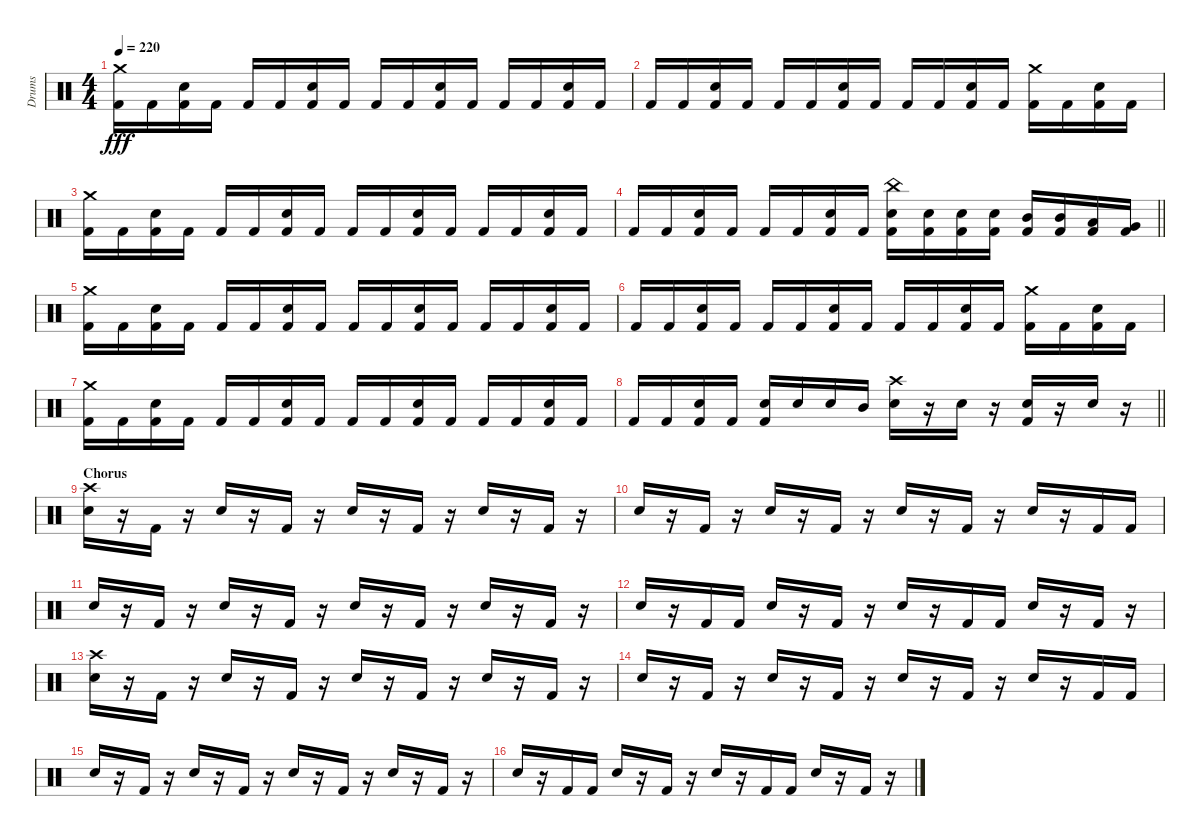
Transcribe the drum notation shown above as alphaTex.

\track ("Drums" "Drums") {instrument percussion}
\staff {score}
\articulation defaults
\ts (4 4)
\tempo 220
\clef neutral
\ks c
("Crash medium (hit)" "Kick (hit) 2").16{dy fff} "Kick (hit) 2".16 ("Kick (hit) 2" "Snare (hit) 2").16 "Kick (hit) 2".16 "Kick (hit) 2".16 "Kick (hit) 2".16 ("Kick (hit) 2" "Snare (hit) 2").16 "Kick (hit) 2".16 "Kick (hit) 2".16 "Kick (hit) 2".16 ("Kick (hit) 2" "Snare (hit) 2").16 "Kick (hit) 2".16 "Kick (hit) 2".16 "Kick (hit) 2".16 ("Kick (hit) 2" "Snare (hit) 2").16 "Kick (hit) 2".16 |
"Kick (hit) 2".16 "Kick (hit) 2".16 ("Kick (hit) 2" "Snare (hit) 2").16 "Kick (hit) 2".16 "Kick (hit) 2".16 "Kick (hit) 2".16 ("Kick (hit) 2" "Snare (hit) 2").16 "Kick (hit) 2".16 "Kick (hit) 2".16 "Kick (hit) 2".16 ("Kick (hit) 2" "Snare (hit) 2").16 "Kick (hit) 2".16 ("Crash medium (hit)" "Kick (hit) 2").16 "Kick (hit) 2".16 ("Kick (hit) 2" "Snare (hit) 2").16 "Kick (hit) 2".16 |
("Crash medium (hit)" "Kick (hit) 2").16 "Kick (hit) 2".16 ("Kick (hit) 2" "Snare (hit) 2").16 "Kick (hit) 2".16 "Kick (hit) 2".16 "Kick (hit) 2".16 ("Kick (hit) 2" "Snare (hit) 2").16 "Kick (hit) 2".16 "Kick (hit) 2".16 "Kick (hit) 2".16 ("Kick (hit) 2" "Snare (hit) 2").16 "Kick (hit) 2".16 "Kick (hit) 2".16 "Kick (hit) 2".16 ("Kick (hit) 2" "Snare (hit) 2").16 "Kick (hit) 2".16 |
\barLineRight lightlight "Kick (hit) 2".16 "Kick (hit) 2".16
("Kick (hit) 2" "Snare (hit) 2").16 "Kick (hit) 2".16 "Kick (hit) 2".16 "Kick (hit) 2".16 ("Kick (hit) 2" "Snare (hit) 2").16 "Kick (hit) 2".16 ("China (hit)" "Kick (hit) 2" "Snare (hit) 2").16 ("Kick (hit) 2" "Snare (hit) 2").16 ("Kick (hit) 2" "Snare (hit) 2").16 ("Kick (hit) 2" "Snare (hit) 2").16 ("Kick (hit) 2" "Mid Tom (hit)").16 ("Kick (hit) 2" "Mid Tom (hit)").16 ("Kick (hit) 2" "Low Tom (hit)").16 ("Kick (hit) 2" "Very Low Tom (hit)").16 |
("Crash medium (hit)" "Kick (hit) 2").16 "Kick (hit) 2".16 ("Kick (hit) 2" "Snare (hit) 2").16 "Kick (hit) 2".16 "Kick (hit) 2".16 "Kick (hit) 2".16 ("Kick (hit) 2" "Snare (hit) 2").16 "Kick (hit) 2".16 "Kick (hit) 2".16 "Kick (hit) 2".16 ("Kick (hit) 2" "Snare (hit) 2").16 "Kick (hit) 2".16 "Kick (hit) 2".16 "Kick (hit) 2".16 ("Kick (hit) 2" "Snare (hit) 2").16 "Kick (hit) 2".16 |
"Kick (hit) 2".16 "Kick (hit) 2".16 ("Kick (hit) 2" "Snare (hit) 2").16 "Kick (hit) 2".16 "Kick (hit) 2".16 "Kick (hit) 2".16 ("Kick (hit) 2" "Snare (hit) 2").16 "Kick (hit) 2".16 "Kick (hit) 2".16 "Kick (hit) 2".16 ("Kick (hit) 2" "Snare (hit) 2").16 "Kick (hit) 2".16 ("Crash medium (hit)" "Kick (hit) 2").16 "Kick (hit) 2".16 ("Kick (hit) 2" "Snare (hit) 2").16 "Kick (hit) 2".16 |
("Crash medium (hit)" "Kick (hit) 2").16 "Kick (hit) 2".16 ("Kick (hit) 2" "Snare (hit) 2").16 "Kick (hit) 2".16 "Kick (hit) 2".16 "Kick (hit) 2".16 ("Kick (hit) 2" "Snare (hit) 2").16 "Kick (hit) 2".16 "Kick (hit) 2".16 "Kick (hit) 2".16 ("Kick (hit) 2" "Snare (hit) 2").16 "Kick (hit) 2".16 "Kick (hit) 2".16 "Kick (hit) 2".16 ("Kick (hit) 2" "Snare (hit) 2").16 "Kick (hit) 2".16 |
\barLineRight lightlight "Kick (hit) 2".16 "Kick (hit) 2".16
("Kick (hit) 2" "Snare (hit) 2").16 "Kick (hit) 2".16 ("Kick (hit) 2" "Snare (hit) 2").16 "Snare (hit) 2".16 "Snare (hit) 2".16 "Mid Tom (hit)".16 ("Crash high (hit)" "Snare (hit) 2").16 r.16 "Snare (hit) 2".16 r.16 ("Kick (hit) 2" "Snare (hit) 2").16 r.16 "Snare (hit) 2".16 r.16 |
\section ("" "Chorus")
("Crash high (hit)" "Snare (hit) 2").16 r.16 "Kick (hit) 2".16 r.16 "Snare (hit) 2".16 r.16 "Kick (hit) 2".16 r.16 "Snare (hit) 2".16 r.16 "Kick (hit) 2".16 r.16 "Snare (hit) 2".16 r.16 "Kick (hit) 2".16 r.16 |
"Snare (hit) 2".16 r.16 "Kick (hit) 2".16 r.16 "Snare (hit) 2".16 r.16 "Kick (hit) 2".16 r.16 "Snare (hit) 2".16 r.16 "Kick (hit) 2".16 r.16 "Snare (hit) 2".16 r.16 "Kick (hit) 2".16 "Kick (hit) 2".16 |
"Snare (hit) 2".16 r.16 "Kick (hit) 2".16 r.16 "Snare (hit) 2".16 r.16 "Kick (hit) 2".16 r.16 "Snare (hit) 2".16 r.16 "Kick (hit) 2".16 r.16 "Snare (hit) 2".16 r.16 "Kick (hit) 2".16 r.16 |
"Snare (hit) 2".16 r.16 "Kick (hit) 2".16 "Kick (hit) 2".16 "Snare (hit) 2".16 r.16 "Kick (hit) 2".16 r.16 "Snare (hit) 2".16 r.16 "Kick (hit) 2".16 "Kick (hit) 2".16 "Snare (hit) 2".16 r.16 "Kick (hit) 2".16 r.16 |
("Crash high (hit)" "Snare (hit) 2").16 r.16 "Kick (hit) 2".16 r.16 "Snare (hit) 2".16 r.16 "Kick (hit) 2".16 r.16 "Snare (hit) 2".16 r.16 "Kick (hit) 2".16 r.16 "Snare (hit) 2".16 r.16 "Kick (hit) 2".16 r.16 |
"Snare (hit) 2".16 r.16 "Kick (hit) 2".16 r.16 "Snare (hit) 2".16 r.16 "Kick (hit) 2".16 r.16 "Snare (hit) 2".16 r.16 "Kick (hit) 2".16 r.16 "Snare (hit) 2".16 r.16 "Kick (hit) 2".16 "Kick (hit) 2".16 |
"Snare (hit) 2".16 r.16 "Kick (hit) 2".16 r.16 "Snare (hit) 2".16 r.16 "Kick (hit) 2".16 r.16 "Snare (hit) 2".16 r.16 "Kick (hit) 2".16 r.16 "Snare (hit) 2".16 r.16 "Kick (hit) 2".16 r.16 |
"Snare (hit) 2".16 r.16 "Kick (hit) 2".16 "Kick (hit) 2".16 "Snare (hit) 2".16 r.16 "Kick (hit) 2".16 r.16 "Snare (hit) 2".16 r.16 "Kick (hit) 2".16 "Kick (hit) 2".16 "Snare (hit) 2".16 r.16 "Kick (hit) 2".16 r.16
